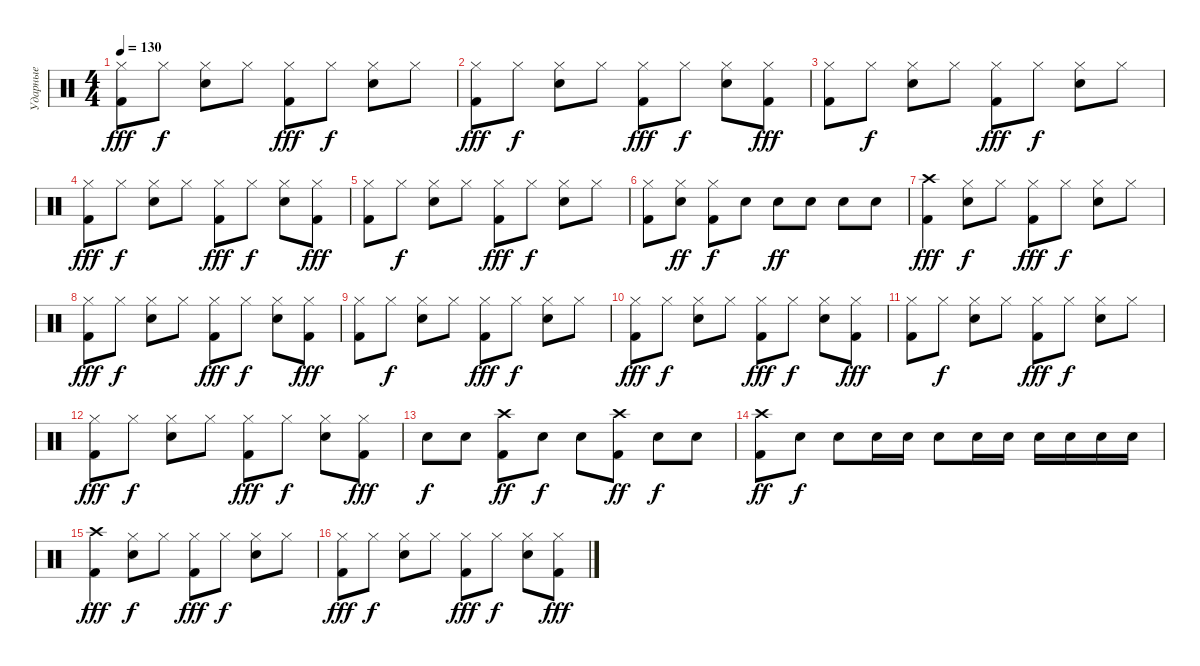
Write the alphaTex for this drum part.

\track ("Ударные" "Ударные") {instrument percussion}
\staff {score}
\articulation defaults
\ts (4 4)
\tempo 130
\clef neutral
\ks c
("Kick (hit) 2" "Hi-Hat (closed)").8{dy fff} "Hi-Hat (closed)".8{dy f} ("Snare (hit) 2" "Hi-Hat (closed)").8 "Hi-Hat (closed)".8 ("Kick (hit) 2" "Hi-Hat (closed)").8{dy fff} "Hi-Hat (closed)".8{dy f} ("Snare (hit) 2" "Hi-Hat (closed)").8 "Hi-Hat (closed)".8 |
("Kick (hit) 2" "Hi-Hat (closed)").8{dy fff} "Hi-Hat (closed)".8{dy f} ("Snare (hit) 2" "Hi-Hat (closed)").8 "Hi-Hat (closed)".8 ("Kick (hit) 2" "Hi-Hat (closed)").8{dy fff} "Hi-Hat (closed)".8{dy f} ("Snare (hit) 2" "Hi-Hat (closed)").8 ("Kick (hit) 2" "Hi-Hat (closed)").8{dy fff} |
("Kick (hit) 2" "Hi-Hat (closed)").8 "Hi-Hat (closed)".8{dy f} ("Snare (hit) 2" "Hi-Hat (closed)").8 "Hi-Hat (closed)".8 ("Kick (hit) 2" "Hi-Hat (closed)").8{dy fff} "Hi-Hat (closed)".8{dy f} ("Snare (hit) 2" "Hi-Hat (closed)").8 "Hi-Hat (closed)".8 |
("Kick (hit) 2" "Hi-Hat (closed)").8{dy fff} "Hi-Hat (closed)".8{dy f} ("Snare (hit) 2" "Hi-Hat (closed)").8 "Hi-Hat (closed)".8 ("Kick (hit) 2" "Hi-Hat (closed)").8{dy fff} "Hi-Hat (closed)".8{dy f} ("Snare (hit) 2" "Hi-Hat (closed)").8 ("Kick (hit) 2" "Hi-Hat (closed)").8{dy fff} |
("Kick (hit) 2" "Hi-Hat (closed)").8 "Hi-Hat (closed)".8{dy f} ("Snare (hit) 2" "Hi-Hat (closed)").8 "Hi-Hat (closed)".8 ("Kick (hit) 2" "Hi-Hat (closed)").8{dy fff} "Hi-Hat (closed)".8{dy f} ("Snare (hit) 2" "Hi-Hat (closed)").8 "Hi-Hat (closed)".8 |
("Kick (hit) 2" "Hi-Hat (closed)").8 ("Snare (hit) 2" "Hi-Hat (closed)").8{dy ff} ("Kick (hit) 2" "Hi-Hat (closed)").8{dy f} "Snare (hit) 2".8 "Snare (hit) 2".8{dy ff} "Snare (hit) 2".8 "Snare (hit) 2".8 "Snare (hit) 2".8 |
("Kick (hit) 2" "Crash high (hit)").4{dy fff} ("Snare (hit) 2" "Hi-Hat (closed)").8{dy f} "Hi-Hat (closed)".8 ("Kick (hit) 2" "Hi-Hat (closed)").8{dy fff} "Hi-Hat (closed)".8{dy f} ("Snare (hit) 2" "Hi-Hat (closed)").8 "Hi-Hat (closed)".8 |
("Kick (hit) 2" "Hi-Hat (closed)").8{dy fff} "Hi-Hat (closed)".8{dy f} ("Snare (hit) 2" "Hi-Hat (closed)").8 "Hi-Hat (closed)".8 ("Kick (hit) 2" "Hi-Hat (closed)").8{dy fff} "Hi-Hat (closed)".8{dy f} ("Snare (hit) 2" "Hi-Hat (closed)").8 ("Kick (hit) 2" "Hi-Hat (closed)").8{dy fff} |
("Kick (hit) 2" "Hi-Hat (closed)").8 "Hi-Hat (closed)".8{dy f} ("Snare (hit) 2" "Hi-Hat (closed)").8 "Hi-Hat (closed)".8 ("Kick (hit) 2" "Hi-Hat (closed)").8{dy fff} "Hi-Hat (closed)".8{dy f} ("Snare (hit) 2" "Hi-Hat (closed)").8 "Hi-Hat (closed)".8 |
("Kick (hit) 2" "Hi-Hat (closed)").8{dy fff} "Hi-Hat (closed)".8{dy f} ("Snare (hit) 2" "Hi-Hat (closed)").8 "Hi-Hat (closed)".8 ("Kick (hit) 2" "Hi-Hat (closed)").8{dy fff} "Hi-Hat (closed)".8{dy f} ("Snare (hit) 2" "Hi-Hat (closed)").8 ("Kick (hit) 2" "Hi-Hat (closed)").8{dy fff} |
("Kick (hit) 2" "Hi-Hat (closed)").8 "Hi-Hat (closed)".8{dy f} ("Snare (hit) 2" "Hi-Hat (closed)").8 "Hi-Hat (closed)".8 ("Kick (hit) 2" "Hi-Hat (closed)").8{dy fff} "Hi-Hat (closed)".8{dy f} ("Snare (hit) 2" "Hi-Hat (closed)").8 "Hi-Hat (closed)".8 |
("Kick (hit) 2" "Hi-Hat (closed)").8{dy fff} "Hi-Hat (closed)".8{dy f} ("Snare (hit) 2" "Hi-Hat (closed)").8 "Hi-Hat (closed)".8 ("Kick (hit) 2" "Hi-Hat (closed)").8{dy fff} "Hi-Hat (closed)".8{dy f} ("Snare (hit) 2" "Hi-Hat (closed)").8 ("Kick (hit) 2" "Hi-Hat (closed)").8{dy fff} |
"Snare (hit) 2".8{dy f} "Snare (hit) 2".8 ("Kick (hit) 2" "Crash high (hit)").8{dy ff} "Snare (hit) 2".8{dy f} "Snare (hit) 2".8 ("Kick (hit) 2" "Crash high (hit)").8{dy ff} "Snare (hit) 2".8{dy f} "Snare (hit) 2".8 |
("Kick (hit) 2" "Crash high (hit)").8{dy ff} "Snare (hit) 2".8{dy f} "Snare (hit) 2".8 "Snare (hit) 2".16 "Snare (hit) 2".16 "Snare (hit) 2".8 "Snare (hit) 2".16 "Snare (hit) 2".16 "Snare (hit) 2".16 "Snare (hit) 2".16 "Snare (hit) 2".16 "Snare (hit) 2".16 |
("Kick (hit) 2" "Crash high (hit)").4{dy fff} ("Snare (hit) 2" "Hi-Hat (closed)").8{dy f} "Hi-Hat (closed)".8 ("Kick (hit) 2" "Hi-Hat (closed)").8{dy fff} "Hi-Hat (closed)".8{dy f} ("Snare (hit) 2" "Hi-Hat (closed)").8 "Hi-Hat (closed)".8 |
("Kick (hit) 2" "Hi-Hat (closed)").8{dy fff} "Hi-Hat (closed)".8{dy f} ("Snare (hit) 2" "Hi-Hat (closed)").8 "Hi-Hat (closed)".8 ("Kick (hit) 2" "Hi-Hat (closed)").8{dy fff} "Hi-Hat (closed)".8{dy f} ("Snare (hit) 2" "Hi-Hat (closed)").8 ("Kick (hit) 2" "Hi-Hat (closed)").8{dy fff}
